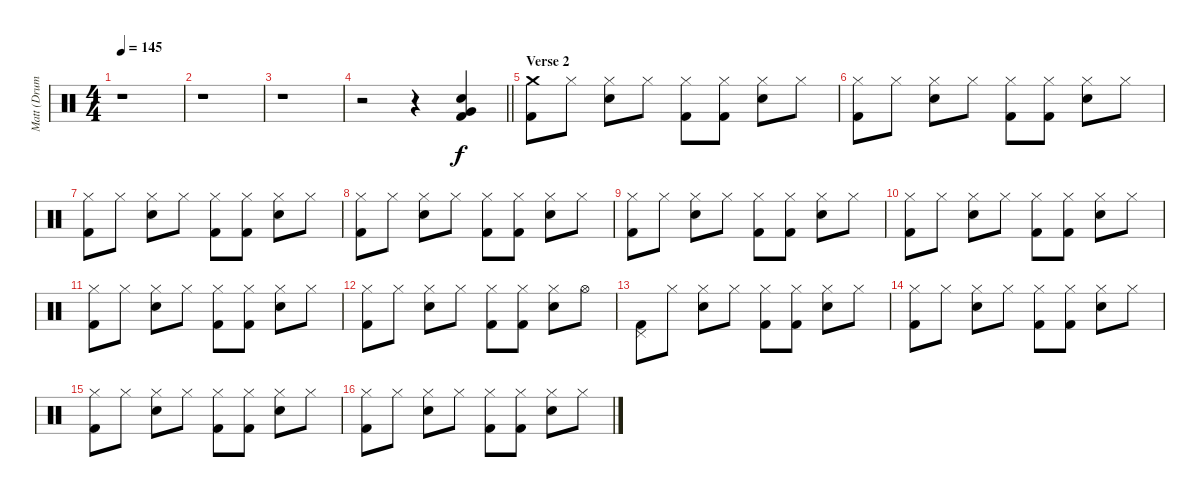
\track ("Matt (Drums)" "Matt (Drum") {instrument percussion}
\staff {score}
\articulation defaults
\ts (4 4)
\tempo 145
\clef neutral
\ks c
r.1{dy f} |
r.1 |
r.1 |
\barLineRight lightlight
r.2 r.4 ("Very Low Tom (hit)" "Electric Snare (hit)" "Kick (hit) 2").4 |
\section ("" "Verse 2")
("Crash medium (hit)" "Kick (hit) 2").8 "Hi-Hat (closed)".8 ("Hi-Hat (closed)" "Electric Snare (hit)").8 "Hi-Hat (closed)".8 ("Hi-Hat (closed)" "Kick (hit) 2").8 ("Hi-Hat (closed)" "Kick (hit) 2").8 ("Hi-Hat (closed)" "Electric Snare (hit)").8 "Hi-Hat (closed)".8 |
("Hi-Hat (closed)" "Kick (hit) 2").8 "Hi-Hat (closed)".8 ("Hi-Hat (closed)" "Electric Snare (hit)").8 "Hi-Hat (closed)".8 ("Hi-Hat (closed)" "Kick (hit) 2").8 ("Hi-Hat (closed)" "Kick (hit) 2").8 ("Hi-Hat (closed)" "Electric Snare (hit)").8 "Hi-Hat (closed)".8 |
("Hi-Hat (closed)" "Kick (hit) 2").8 "Hi-Hat (closed)".8 ("Hi-Hat (closed)" "Electric Snare (hit)").8 "Hi-Hat (closed)".8 ("Hi-Hat (closed)" "Kick (hit) 2").8 ("Hi-Hat (closed)" "Kick (hit) 2").8 ("Hi-Hat (closed)" "Electric Snare (hit)").8 "Hi-Hat (closed)".8 |
("Hi-Hat (closed)" "Kick (hit) 2").8 "Hi-Hat (closed)".8 ("Hi-Hat (closed)" "Electric Snare (hit)").8 "Hi-Hat (closed)".8 ("Hi-Hat (closed)" "Kick (hit) 2").8 ("Hi-Hat (closed)" "Kick (hit) 2").8 ("Hi-Hat (closed)" "Electric Snare (hit)").8 "Hi-Hat (closed)".8 |
("Hi-Hat (closed)" "Kick (hit) 2").8 "Hi-Hat (closed)".8 ("Hi-Hat (closed)" "Electric Snare (hit)").8 "Hi-Hat (closed)".8 ("Hi-Hat (closed)" "Kick (hit) 2").8 ("Hi-Hat (closed)" "Kick (hit) 2").8 ("Hi-Hat (closed)" "Electric Snare (hit)").8 "Hi-Hat (closed)".8 |
("Hi-Hat (closed)" "Kick (hit) 2").8 "Hi-Hat (closed)".8 ("Hi-Hat (closed)" "Electric Snare (hit)").8 "Hi-Hat (closed)".8 ("Hi-Hat (closed)" "Kick (hit) 2").8 ("Hi-Hat (closed)" "Kick (hit) 2").8 ("Hi-Hat (closed)" "Electric Snare (hit)").8 "Hi-Hat (closed)".8 |
("Hi-Hat (closed)" "Kick (hit) 2").8 "Hi-Hat (closed)".8 ("Hi-Hat (closed)" "Electric Snare (hit)").8 "Hi-Hat (closed)".8 ("Hi-Hat (closed)" "Kick (hit) 2").8 ("Hi-Hat (closed)" "Kick (hit) 2").8 ("Hi-Hat (closed)" "Electric Snare (hit)").8 "Hi-Hat (closed)".8 |
("Hi-Hat (closed)" "Kick (hit) 2").8 "Hi-Hat (closed)".8 ("Hi-Hat (closed)" "Electric Snare (hit)").8 "Hi-Hat (closed)".8 ("Hi-Hat (closed)" "Kick (hit) 2").8 ("Hi-Hat (closed)" "Kick (hit) 2").8 ("Hi-Hat (closed)" "Electric Snare (hit)").8 "Hi-Hat (open)".8 |
("Pedal Hi-Hat (hit)" "Kick (hit) 2").8 "Hi-Hat (closed)".8 ("Hi-Hat (closed)" "Electric Snare (hit)").8 "Hi-Hat (closed)".8 ("Hi-Hat (closed)" "Kick (hit) 2").8 ("Hi-Hat (closed)" "Kick (hit) 2").8 ("Hi-Hat (closed)" "Electric Snare (hit)").8 "Hi-Hat (closed)".8 |
("Hi-Hat (closed)" "Kick (hit) 2").8 "Hi-Hat (closed)".8 ("Hi-Hat (closed)" "Electric Snare (hit)").8 "Hi-Hat (closed)".8 ("Hi-Hat (closed)" "Kick (hit) 2").8 ("Hi-Hat (closed)" "Kick (hit) 2").8 ("Hi-Hat (closed)" "Electric Snare (hit)").8 "Hi-Hat (closed)".8 |
("Hi-Hat (closed)" "Kick (hit) 2").8 "Hi-Hat (closed)".8 ("Hi-Hat (closed)" "Electric Snare (hit)").8 "Hi-Hat (closed)".8 ("Hi-Hat (closed)" "Kick (hit) 2").8 ("Hi-Hat (closed)" "Kick (hit) 2").8 ("Hi-Hat (closed)" "Electric Snare (hit)").8 "Hi-Hat (closed)".8 |
("Hi-Hat (closed)" "Kick (hit) 2").8 "Hi-Hat (closed)".8 ("Hi-Hat (closed)" "Electric Snare (hit)").8 "Hi-Hat (closed)".8 ("Hi-Hat (closed)" "Kick (hit) 2").8 ("Hi-Hat (closed)" "Kick (hit) 2").8 ("Hi-Hat (closed)" "Electric Snare (hit)").8 "Hi-Hat (closed)".8
